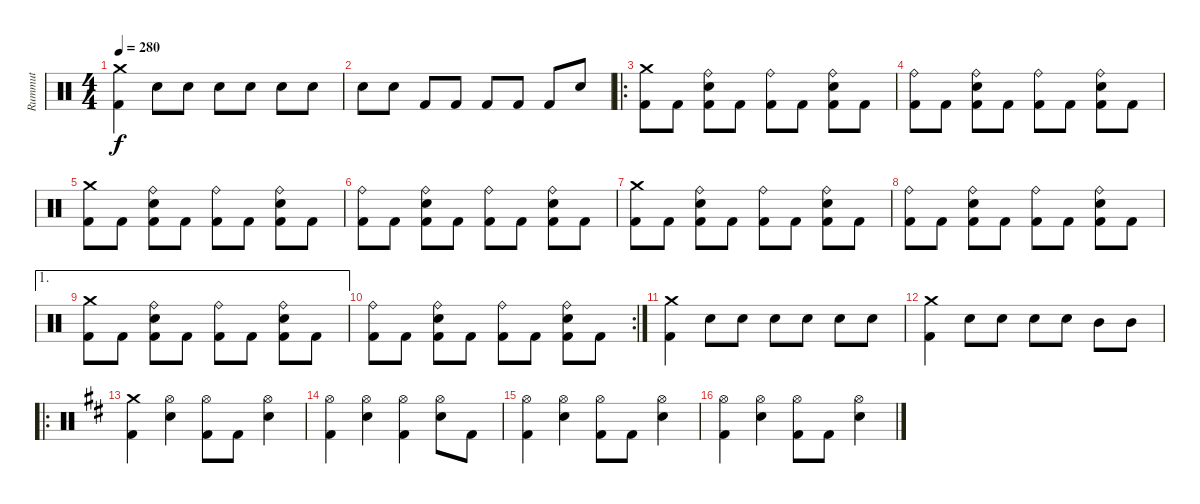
\track ("Rummut" "Rummut") {instrument percussion}
\staff {score}
\articulation defaults
\ts (4 4)
\tempo 280
\clef neutral
\ks c
("Crash medium (hit)" "Kick (hit) 2").4{dy f} "Snare (hit) 2".8 "Snare (hit) 2".8 "Snare (hit) 2".8 "Snare (hit) 2".8 "Snare (hit) 2".8 "Snare (hit) 2".8 |
"Snare (hit) 2".8 "Snare (hit) 2".8 "Kick (hit) 2".8 "Kick (hit) 2".8 "Kick (hit) 2".8 "Kick (hit) 2".8 "Kick (hit) 2".8 "Snare (hit) 2".8 |
\ro
("Crash medium (hit)" "Kick (hit) 2").8 "Kick (hit) 2".8 ("Ride (bell)" "Snare (hit) 2" "Kick (hit) 2").8 "Kick (hit) 2".8 ("Ride (bell)" "Kick (hit) 2").8 "Kick (hit) 2".8 ("Ride (bell)" "Snare (hit) 2" "Kick (hit) 2").8 "Kick (hit) 2".8 |
("Ride (bell)" "Kick (hit) 2").8 "Kick (hit) 2".8 ("Ride (bell)" "Snare (hit) 2" "Kick (hit) 2").8 "Kick (hit) 2".8 ("Ride (bell)" "Kick (hit) 2").8 "Kick (hit) 2".8 ("Ride (bell)" "Snare (hit) 2" "Kick (hit) 2").8 "Kick (hit) 2".8 |
("Crash medium (hit)" "Kick (hit) 2").8 "Kick (hit) 2".8 ("Ride (bell)" "Snare (hit) 2" "Kick (hit) 2").8 "Kick (hit) 2".8 ("Ride (bell)" "Kick (hit) 2").8 "Kick (hit) 2".8 ("Ride (bell)" "Snare (hit) 2" "Kick (hit) 2").8 "Kick (hit) 2".8 |
("Ride (bell)" "Kick (hit) 2").8 "Kick (hit) 2".8 ("Ride (bell)" "Snare (hit) 2" "Kick (hit) 2").8 "Kick (hit) 2".8 ("Ride (bell)" "Kick (hit) 2").8 "Kick (hit) 2".8 ("Ride (bell)" "Snare (hit) 2" "Kick (hit) 2").8 "Kick (hit) 2".8 |
("Crash medium (hit)" "Kick (hit) 2").8 "Kick (hit) 2".8 ("Ride (bell)" "Snare (hit) 2" "Kick (hit) 2").8 "Kick (hit) 2".8 ("Ride (bell)" "Kick (hit) 2").8 "Kick (hit) 2".8 ("Ride (bell)" "Snare (hit) 2" "Kick (hit) 2").8 "Kick (hit) 2".8 |
("Ride (bell)" "Kick (hit) 2").8 "Kick (hit) 2".8 ("Ride (bell)" "Snare (hit) 2" "Kick (hit) 2").8 "Kick (hit) 2".8 ("Ride (bell)" "Kick (hit) 2").8 "Kick (hit) 2".8 ("Ride (bell)" "Snare (hit) 2" "Kick (hit) 2").8 "Kick (hit) 2".8 |
\ae 1
("Crash medium (hit)" "Kick (hit) 2").8 "Kick (hit) 2".8 ("Ride (bell)" "Snare (hit) 2" "Kick (hit) 2").8 "Kick (hit) 2".8 ("Ride (bell)" "Kick (hit) 2").8 "Kick (hit) 2".8 ("Ride (bell)" "Snare (hit) 2" "Kick (hit) 2").8 "Kick (hit) 2".8 |
\rc 2
("Ride (bell)" "Kick (hit) 2").8 "Kick (hit) 2".8 ("Ride (bell)" "Snare (hit) 2" "Kick (hit) 2").8 "Kick (hit) 2".8 ("Ride (bell)" "Kick (hit) 2").8 "Kick (hit) 2".8 ("Ride (bell)" "Snare (hit) 2" "Kick (hit) 2").8 "Kick (hit) 2".8 |
("Crash medium (hit)" "Kick (hit) 2").4 "Snare (hit) 2".8 "Snare (hit) 2".8 "Snare (hit) 2".8 "Snare (hit) 2".8 "Snare (hit) 2".8 "Snare (hit) 2".8 |
("Crash medium (hit)" "Kick (hit) 2").4 "Snare (hit) 2".8 "Snare (hit) 2".8 "Snare (hit) 2".8 "Snare (hit) 2".8 "Mid Tom (hit)".8 "Mid Tom (hit)".8 |
\ro
\ks d
("Crash medium (hit)" "Kick (hit) 2").4 ("Hi-Hat (open)" "Snare (hit) 2").4 ("Hi-Hat (open)" "Kick (hit) 2").8 "Kick (hit) 2".8 ("Hi-Hat (open)" "Snare (hit) 2").4 |
("Hi-Hat (open)" "Kick (hit) 2").4 ("Hi-Hat (open)" "Snare (hit) 2").4 ("Hi-Hat (open)" "Kick (hit) 2").4 ("Hi-Hat (open)" "Snare (hit) 2").8 "Kick (hit) 2".8 |
("Hi-Hat (open)" "Kick (hit) 2").4 ("Hi-Hat (open)" "Snare (hit) 2").4 ("Hi-Hat (open)" "Kick (hit) 2").8 "Kick (hit) 2".8 ("Hi-Hat (open)" "Snare (hit) 2").4 |
("Hi-Hat (open)" "Kick (hit) 2").4 ("Hi-Hat (open)" "Snare (hit) 2").4 ("Hi-Hat (open)" "Kick (hit) 2").8 "Kick (hit) 2".8 ("Hi-Hat (open)" "Snare (hit) 2").4
